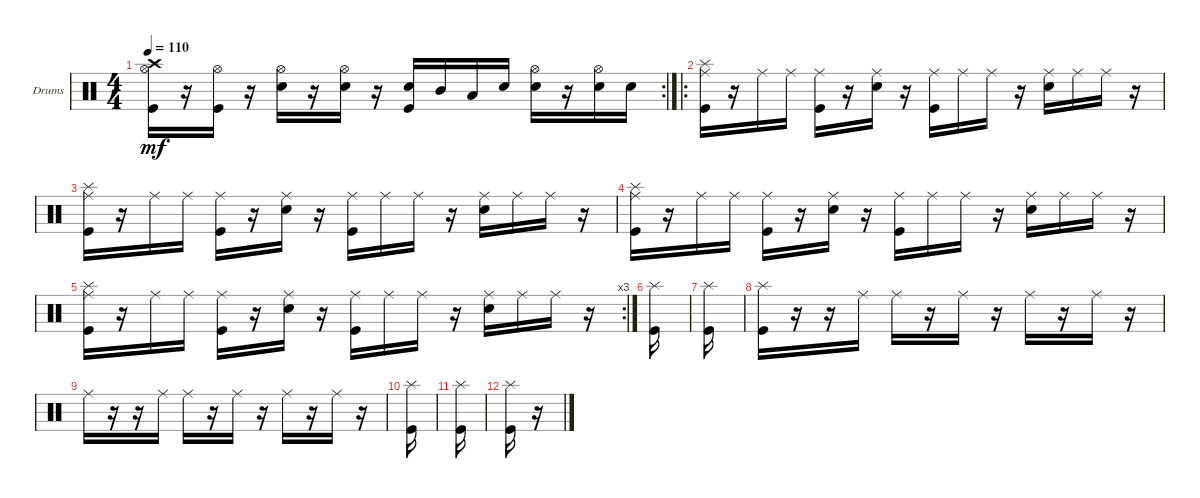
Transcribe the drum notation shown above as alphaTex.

\defaultSystemsLayout 4
\bracketExtendMode groupsimilarinstruments
\firstSystemTrackNameOrientation horizontal
\otherSystemsTrackNameOrientation horizontal
\track ("Drumkit" "Drums") {instrument percussion}
\staff {score}
\articulation defaults
\rc 2
\ts (4 4)
\tempo 110
\clef neutral
\scale
0.333333
\ks c
("Hi-Hat (open)" "Kick (hit)" "Crash high (hit)").16{dy mf} r.16 ("Hi-Hat (open)" "Kick (hit)").16 r.16 ("Snare (hit) 2" "Hi-Hat (open)").16 r.16 ("Hi-Hat (open)" "Snare (hit) 2").16 r.16 ("Snare (hit) 2" "Kick (hit)").16 "Mid Tom (hit)".16 "Low Tom (hit)".16 "Snare (hit) 2".16 ("Hi-Hat (open)" "Snare (hit) 2").16 r.16 ("Hi-Hat (open)" "Snare (hit) 2").16 "Snare (hit) 2".16 |
\ro
\scale
0.365591 ("Kick (hit)" "Ride (middle)" "Splash (hit)").16 r.16 "Ride (middle)".16 "Ride (middle)".16 ("Ride (middle)" "Kick (hit)").16 r.16 ("Ride (middle)" "Snare (hit) 2").16 r.16 ("Ride (middle)" "Kick (hit)").16 "Ride (middle)".16 "Ride (middle)".16 r.16 ("Ride (middle)" "Snare (hit) 2").16 "Ride (middle)".16 "Ride (middle)".16 r.16 |
\scale
0.301075 ("Kick (hit)" "Ride (middle)" "Splash (hit)").16 r.16 "Ride (middle)".16 "Ride (middle)".16 ("Ride (middle)" "Kick (hit)").16 r.16 ("Ride (middle)" "Snare (hit) 2").16 r.16 ("Ride (middle)" "Kick (hit)").16 "Ride (middle)".16 "Ride (middle)".16 r.16 ("Ride (middle)" "Snare (hit) 2").16 "Ride (middle)".16 "Ride (middle)".16 r.16 |
\scale
0.321839 ("Kick (hit)" "Ride (middle)" "Splash (hit)").16 r.16 "Ride (middle)".16 "Ride (middle)".16 ("Ride (middle)" "Kick (hit)").16 r.16 ("Ride (middle)" "Snare (hit) 2").16 r.16 ("Ride (middle)" "Kick (hit)").16 "Ride (middle)".16 "Ride (middle)".16 r.16 ("Ride (middle)" "Snare (hit) 2").16 "Ride (middle)".16 "Ride (middle)".16 r.16 |
\rc 3
\scale
0.356322 ("Kick (hit)" "Ride (middle)" "Splash (hit)").16 r.16 "Ride (middle)".16 "Ride (middle)".16 ("Ride (middle)" "Kick (hit)").16 r.16 ("Ride (middle)" "Snare (hit) 2").16 r.16 ("Ride (middle)" "Kick (hit)").16 "Ride (middle)".16 "Ride (middle)".16 r.16 ("Ride (middle)" "Snare (hit) 2").16 "Ride (middle)".16 "Ride (middle)".16 r.16 |
\scale
0.321839 ("Kick (hit)" "Splash (hit)").16 |
\scale
0.333333 ("Kick (hit)" "Splash (hit)").16 |
\scale
0.333333 ("Kick (hit)" "Splash (hit)").16 r.16 r.16 "Ride (middle)".16 "Ride (middle)".16 r.16 "Ride (middle)".16 r.16 "Ride (middle)".16 r.16 "Ride (middle)".16 r.16 |
\scale
0.333333 "Ride (middle)".16 r.16 r.16 "Ride (middle)".16 "Ride (middle)".16 r.16 "Ride (middle)".16 r.16 "Ride (middle)".16 r.16 "Ride (middle)".16 r.16 |
\scale
0.333333 ("Kick (hit)" "Splash (hit)").16 |
\scale
0.333333 ("Kick (hit)" "Splash (hit)").16 |
\scale
0.333333 ("Kick (hit)" "Splash (hit)").16 r.16
